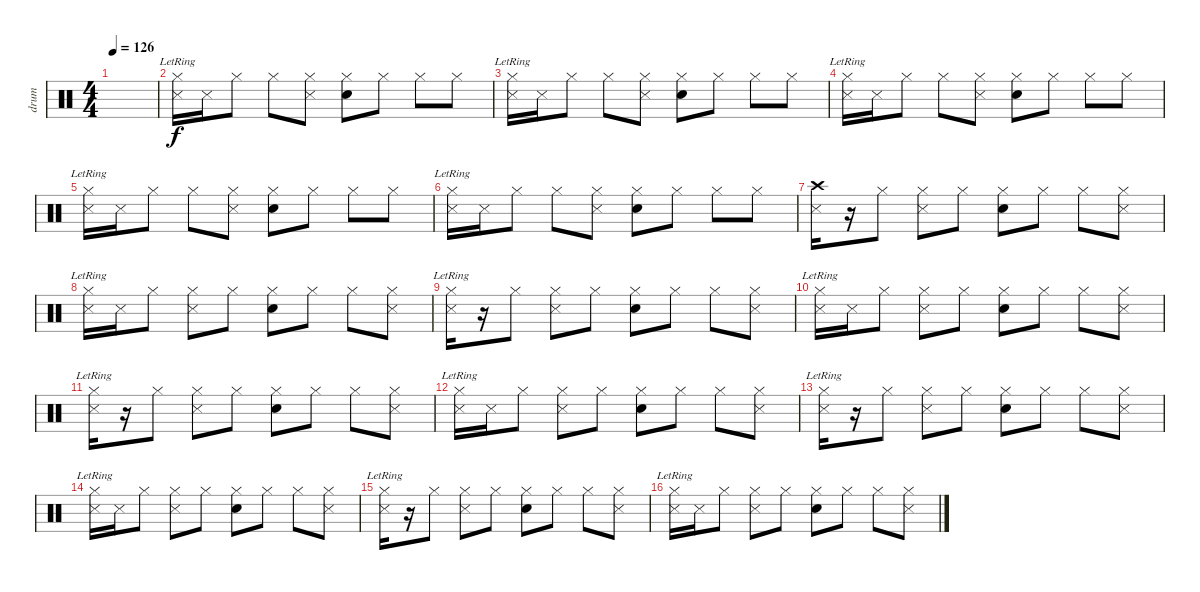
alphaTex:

\track ("drum" "drum") {instrument percussion}
\staff {score}
\articulation defaults
\ts (4 4)
\tempo 126
\clef neutral
\ks c
|
("Hi-Hat (closed)"{lr} "Metronome (hit)").16 "Metronome (hit)".16 "Hi-Hat (closed)".8 "Hi-Hat (closed)".8 ("Hi-Hat (closed)" "Metronome (hit)").8 ("Hi-Hat (closed)" "Snare (hit) 2").8 "Hi-Hat (closed)".8 "Hi-Hat (closed)".8 "Hi-Hat (closed)".8 |
("Hi-Hat (closed)"{lr} "Metronome (hit)").16 "Metronome (hit)".16 "Hi-Hat (closed)".8 "Hi-Hat (closed)".8 ("Hi-Hat (closed)" "Metronome (hit)").8 ("Hi-Hat (closed)" "Snare (hit) 2").8 "Hi-Hat (closed)".8 "Hi-Hat (closed)".8 "Hi-Hat (closed)".8 |
("Hi-Hat (closed)"{lr} "Metronome (hit)").16 "Metronome (hit)".16 "Hi-Hat (closed)".8 "Hi-Hat (closed)".8 ("Hi-Hat (closed)" "Metronome (hit)").8 ("Hi-Hat (closed)" "Snare (hit) 2").8 "Hi-Hat (closed)".8 "Hi-Hat (closed)".8 "Hi-Hat (closed)".8 |
("Hi-Hat (closed)"{lr} "Metronome (hit)").16 "Metronome (hit)".16 "Hi-Hat (closed)".8 "Hi-Hat (closed)".8 ("Hi-Hat (closed)" "Metronome (hit)").8 ("Hi-Hat (closed)" "Snare (hit) 2").8 "Hi-Hat (closed)".8 "Hi-Hat (closed)".8 "Hi-Hat (closed)".8 |
("Hi-Hat (closed)"{lr} "Metronome (hit)").16 "Metronome (hit)".16 "Hi-Hat (closed)".8 "Hi-Hat (closed)".8 ("Hi-Hat (closed)" "Metronome (hit)").8 ("Hi-Hat (closed)" "Snare (hit) 2").8 "Hi-Hat (closed)".8 "Hi-Hat (closed)".8 "Hi-Hat (closed)".8 |
("Metronome (hit)" "Crash high (hit)").16 r.16 "Hi-Hat (closed)".8 ("Hi-Hat (closed)" "Metronome (hit)").8 "Hi-Hat (closed)".8 ("Hi-Hat (closed)" "Snare (hit) 2").8 "Hi-Hat (closed)".8 "Hi-Hat (closed)".8 ("Hi-Hat (closed)" "Metronome (hit)").8 |
("Hi-Hat (closed)"{lr} "Metronome (hit)").16 "Metronome (hit)".16 "Hi-Hat (closed)".8 ("Hi-Hat (closed)" "Metronome (hit)").8 "Hi-Hat (closed)".8 ("Hi-Hat (closed)" "Snare (hit) 2").8 "Hi-Hat (closed)".8 "Hi-Hat (closed)".8 ("Hi-Hat (closed)" "Metronome (hit)").8 |
("Hi-Hat (closed)"{lr} "Metronome (hit)").16 r.16 "Hi-Hat (closed)".8 ("Hi-Hat (closed)" "Metronome (hit)").8 "Hi-Hat (closed)".8 ("Hi-Hat (closed)" "Snare (hit) 2").8 "Hi-Hat (closed)".8 "Hi-Hat (closed)".8 ("Hi-Hat (closed)" "Metronome (hit)").8 |
("Hi-Hat (closed)"{lr} "Metronome (hit)").16 "Metronome (hit)".16 "Hi-Hat (closed)".8 ("Hi-Hat (closed)" "Metronome (hit)").8 "Hi-Hat (closed)".8 ("Hi-Hat (closed)" "Snare (hit) 2").8 "Hi-Hat (closed)".8 "Hi-Hat (closed)".8 ("Hi-Hat (closed)" "Metronome (hit)").8 |
("Hi-Hat (closed)"{lr} "Metronome (hit)").16 r.16 "Hi-Hat (closed)".8 ("Hi-Hat (closed)" "Metronome (hit)").8 "Hi-Hat (closed)".8 ("Hi-Hat (closed)" "Snare (hit) 2").8 "Hi-Hat (closed)".8 "Hi-Hat (closed)".8 ("Hi-Hat (closed)" "Metronome (hit)").8 |
("Hi-Hat (closed)"{lr} "Metronome (hit)").16 "Metronome (hit)".16 "Hi-Hat (closed)".8 ("Hi-Hat (closed)" "Metronome (hit)").8 "Hi-Hat (closed)".8 ("Hi-Hat (closed)" "Snare (hit) 2").8 "Hi-Hat (closed)".8 "Hi-Hat (closed)".8 ("Hi-Hat (closed)" "Metronome (hit)").8 |
("Hi-Hat (closed)"{lr} "Metronome (hit)").16 r.16 "Hi-Hat (closed)".8 ("Hi-Hat (closed)" "Metronome (hit)").8 "Hi-Hat (closed)".8 ("Hi-Hat (closed)" "Snare (hit) 2").8 "Hi-Hat (closed)".8 "Hi-Hat (closed)".8 ("Hi-Hat (closed)" "Metronome (hit)").8 |
("Hi-Hat (closed)"{lr} "Metronome (hit)").16 "Metronome (hit)".16 "Hi-Hat (closed)".8 ("Hi-Hat (closed)" "Metronome (hit)").8 "Hi-Hat (closed)".8 ("Hi-Hat (closed)" "Snare (hit) 2").8 "Hi-Hat (closed)".8 "Hi-Hat (closed)".8 ("Hi-Hat (closed)" "Metronome (hit)").8 |
("Hi-Hat (closed)"{lr} "Metronome (hit)").16 r.16 "Hi-Hat (closed)".8 ("Hi-Hat (closed)" "Metronome (hit)").8 "Hi-Hat (closed)".8 ("Hi-Hat (closed)" "Snare (hit) 2").8 "Hi-Hat (closed)".8 "Hi-Hat (closed)".8 ("Hi-Hat (closed)" "Metronome (hit)").8 |
("Hi-Hat (closed)"{lr} "Metronome (hit)").16 "Metronome (hit)".16 "Hi-Hat (closed)".8 ("Hi-Hat (closed)" "Metronome (hit)").8 "Hi-Hat (closed)".8 ("Hi-Hat (closed)" "Snare (hit) 2").8 "Hi-Hat (closed)".8 "Hi-Hat (closed)".8 ("Hi-Hat (closed)" "Metronome (hit)").8
